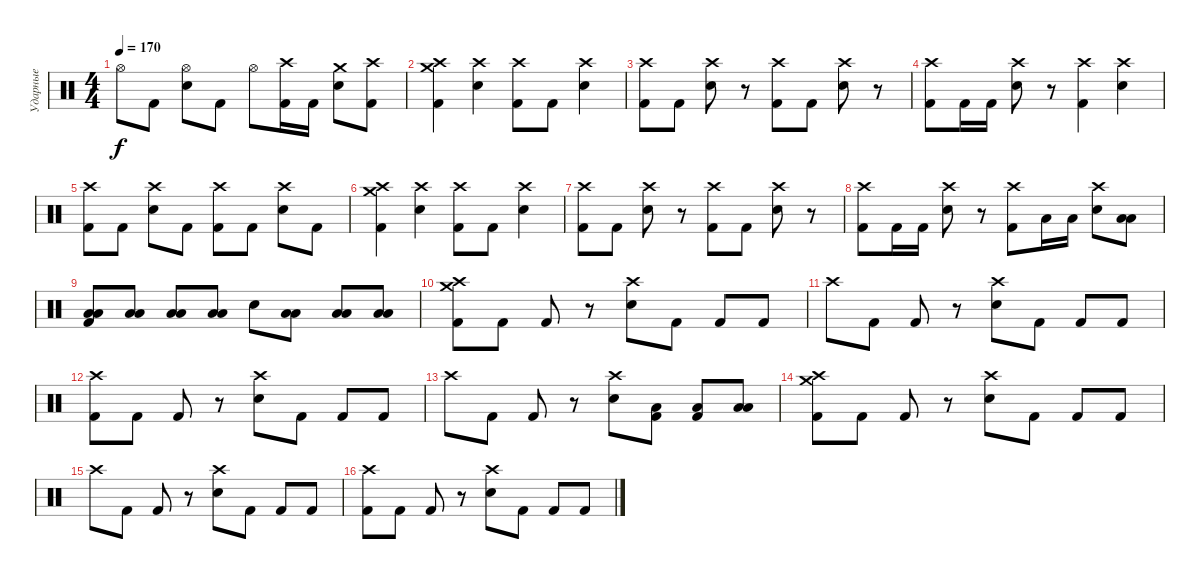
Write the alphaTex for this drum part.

\track ("Ударные" "Ударные") {instrument percussion}
\staff {score}
\articulation defaults
\ts (4 4)
\tempo 170
\clef neutral
\ks c "Hi-Hat (open)".8{dy f} "Kick (hit) 2".8
("Hi-Hat (open)" "Electric Snare (hit)").8 "Kick (hit) 2".8 "Hi-Hat (open)".8 ("Crash high (hit)" "Kick (hit) 2").16 "Kick (hit) 2".16 ("Crash medium (hit)" "Electric Snare (hit)").8 ("Crash high (hit)" "Kick (hit) 2").8 |
("Crash medium (hit)" "Crash high (hit)" "Kick (hit) 2").4 ("Crash high (hit)" "Electric Snare (hit)").4 ("Crash high (hit)" "Kick (hit) 2").8 "Kick (hit) 2".8 ("Crash high (hit)" "Electric Snare (hit)").4 |
("Crash high (hit)" "Kick (hit) 2").8 "Kick (hit) 2".8 ("Crash high (hit)" "Electric Snare (hit)").8 r.8 ("Crash high (hit)" "Kick (hit) 2").8 "Kick (hit) 2".8 ("Crash high (hit)" "Electric Snare (hit)").8 r.8 |
("Crash high (hit)" "Kick (hit) 2").8 "Kick (hit) 2".16 "Kick (hit) 2".16 ("Crash high (hit)" "Electric Snare (hit)").8 r.8 ("Crash high (hit)" "Kick (hit) 2").4 ("Crash high (hit)" "Electric Snare (hit)").4 |
("Crash high (hit)" "Kick (hit) 2").8 "Kick (hit) 2".8 ("Crash high (hit)" "Electric Snare (hit)").8 "Kick (hit) 2".8 ("Crash high (hit)" "Kick (hit) 2").8 "Kick (hit) 2".8 ("Crash high (hit)" "Electric Snare (hit)").8 "Kick (hit) 2".8 |
("Crash medium (hit)" "Crash high (hit)" "Kick (hit) 2").4 ("Crash high (hit)" "Electric Snare (hit)").4 ("Crash high (hit)" "Kick (hit) 2").8 "Kick (hit) 2".8 ("Crash high (hit)" "Electric Snare (hit)").4 |
("Crash high (hit)" "Kick (hit) 2").8 "Kick (hit) 2".8 ("Crash high (hit)" "Electric Snare (hit)").8 r.8 ("Crash high (hit)" "Kick (hit) 2").8 "Kick (hit) 2".8 ("Crash high (hit)" "Electric Snare (hit)").8 r.8 |
("Crash high (hit)" "Kick (hit) 2").8 "Kick (hit) 2".16 "Kick (hit) 2".16 ("Crash high (hit)" "Electric Snare (hit)").8 r.8 ("Crash high (hit)" "Kick (hit) 2").8 "Low Tom (hit)".16 "Low Tom (hit)".16 ("Crash high (hit)" "Electric Snare (hit)").8 ("Low Tom (hit)" "Low Floor Tom (hit)").8 |
("Low Tom (hit)" "Low Floor Tom (hit)" "Kick (hit) 2").8 ("Low Tom (hit)" "Low Floor Tom (hit)").8 ("Low Tom (hit)" "Low Floor Tom (hit)").8 ("Low Tom (hit)" "Low Floor Tom (hit)").8 "Electric Snare (hit)".8 ("Low Tom (hit)" "Low Floor Tom (hit)").8 ("Low Tom (hit)" "Low Floor Tom (hit)").8 ("Low Tom (hit)" "Low Floor Tom (hit)").8 |
("Crash medium (hit)" "Crash high (hit)" "Kick (hit) 2").8 "Kick (hit) 2".8 "Kick (hit) 2".8 r.8 ("Crash high (hit)" "Electric Snare (hit)").8 "Kick (hit) 2".8 "Kick (hit) 2".8 "Kick (hit) 2".8 |
"Crash high (hit)".8 "Kick (hit) 2".8 "Kick (hit) 2".8 r.8 ("Crash high (hit)" "Electric Snare (hit)").8 "Kick (hit) 2".8 "Kick (hit) 2".8 "Kick (hit) 2".8 |
("Crash high (hit)" "Kick (hit) 2").8 "Kick (hit) 2".8 "Kick (hit) 2".8 r.8 ("Crash high (hit)" "Electric Snare (hit)").8 "Kick (hit) 2".8 "Kick (hit) 2".8 "Kick (hit) 2".8 |
"Crash high (hit)".8 "Kick (hit) 2".8 "Kick (hit) 2".8 r.8 ("Crash high (hit)" "Electric Snare (hit)").8 ("Low Tom (hit)" "Kick (hit) 2").8 ("Low Floor Tom (hit)" "Kick (hit) 2").8 ("Low Tom (hit)" "Low Floor Tom (hit)").8 |
("Crash medium (hit)" "Crash high (hit)" "Kick (hit) 2").8 "Kick (hit) 2".8 "Kick (hit) 2".8 r.8 ("Crash high (hit)" "Electric Snare (hit)").8 "Kick (hit) 2".8 "Kick (hit) 2".8 "Kick (hit) 2".8 |
"Crash high (hit)".8 "Kick (hit) 2".8 "Kick (hit) 2".8 r.8 ("Crash high (hit)" "Electric Snare (hit)").8 "Kick (hit) 2".8 "Kick (hit) 2".8 "Kick (hit) 2".8 |
("Crash high (hit)" "Kick (hit) 2").8 "Kick (hit) 2".8 "Kick (hit) 2".8 r.8 ("Crash high (hit)" "Electric Snare (hit)").8 "Kick (hit) 2".8 "Kick (hit) 2".8 "Kick (hit) 2".8
